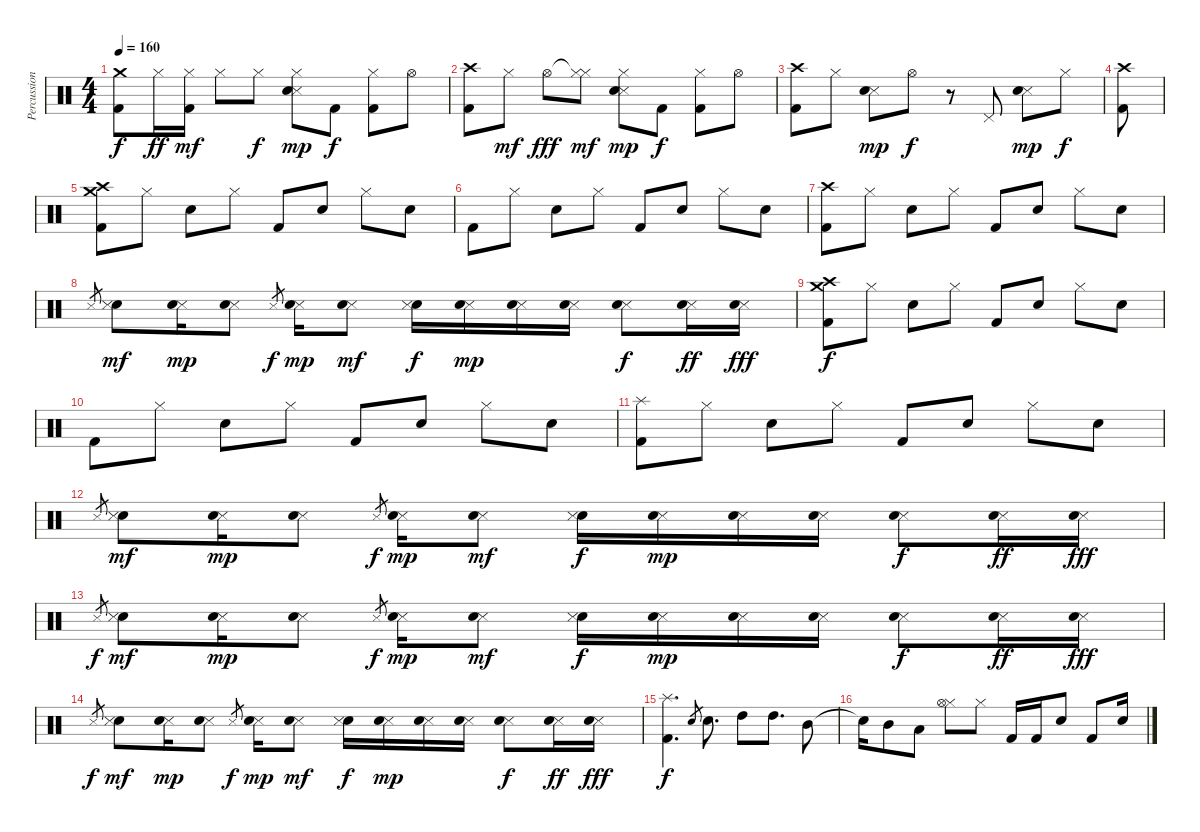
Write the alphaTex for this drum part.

\track ("Percussion" "Percussion") {instrument percussion}
\staff {score}
\articulation defaults
\ts (4 4)
\tempo 160
\clef neutral
\ks c
("Crash medium (hit)" "Kick (hit) 2").8{dy f} "Hi-Hat (closed)".16{dy ff} ("Hi-Hat (closed)" "Kick (hit) 2").16{dy mf} "Hi-Hat (closed)".8 "Hi-Hat (closed)".8{dy f} ("Hi-Hat (closed)" "Snare (side stick) 3" "Electric Snare (hit)").8{dy mp} "Kick (hit) 2".8{dy f} ("Hi-Hat (closed)" "Kick (hit) 2").8 "Hi-Hat (open)".8 |
("Crash high (hit)" "Kick (hit) 2").8 "Hi-Hat (closed)".8{dy mf} "Hi-Hat (open)".8{dy fff} ("Hi-Hat (closed)"{t} "Hi-Hat (closed)").8{dy mf} ("Hi-Hat (closed)" "Snare (side stick) 3" "Electric Snare (hit)").8{dy mp} "Kick (hit) 2".8{dy f} ("Hi-Hat (closed)" "Kick (hit) 2").8 "Hi-Hat (open)".8 |
("Crash high (hit)" "Kick (hit) 2").8 "Hi-Hat (closed)".8 ("Snare (side stick) 3" "Electric Snare (hit)").8{dy mp} "Hi-Hat (open)".8{dy f} r.8 "Pedal Hi-Hat (hit)".8 ("Snare (side stick) 3" "Electric Snare (hit)").8{dy mp} "Hi-Hat (closed)".8{dy f} |
("Crash high (hit)" "Kick (hit) 2").8 |
("Kick (hit) 2" "Crash high (hit)" "Crash medium (hit)").8 "Hi-Hat (closed)".8 "Electric Snare (hit)".8 "Hi-Hat (closed)".8 "Kick (hit) 2".8 "Electric Snare (hit)".8 "Hi-Hat (closed)".8 "Electric Snare (hit)".8 |
"Kick (hit) 2".8 "Hi-Hat (closed)".8 "Electric Snare (hit)".8 "Hi-Hat (closed)".8 "Kick (hit) 2".8 "Electric Snare (hit)".8 "Hi-Hat (closed)".8 "Electric Snare (hit)".8 |
("Kick (hit) 2" "Crash high (hit)").8 "Hi-Hat (closed)".8 "Electric Snare (hit)".8 "Hi-Hat (closed)".8 "Kick (hit) 2".8 "Electric Snare (hit)".8 "Hi-Hat (closed)".8 "Electric Snare (hit)".8 |
"Snare (side stick) 3".8{gr} ("Electric Snare (hit)" "Snare (side stick) 3").8{dy mf} ("Snare (side stick) 3" "Electric Snare (hit)").16{dy mp} ("Snare (side stick) 3" "Electric Snare (hit)").8 "Snare (side stick) 3".8{gr dy f} ("Snare (side stick) 3" "Electric Snare (hit)").16{dy mp} ("Snare (side stick) 3" "Electric Snare (hit)").8{dy mf} ("Electric Snare (hit)" "Snare (side stick) 3").16{dy f} ("Snare (side stick) 3" "Electric Snare (hit)").16{dy mp} ("Snare (side stick) 3" "Electric Snare (hit)").16 ("Snare (side stick) 3" "Electric Snare (hit)").16 ("Snare (side stick) 3" "Electric Snare (hit)").8{dy f} ("Snare (side stick) 3" "Electric Snare (hit)").16{dy ff} ("Snare (side stick) 3" "Electric Snare (hit)").16{dy fff} |
("Kick (hit) 2" "Crash high (hit)" "Crash medium (hit)").8{dy f} "Hi-Hat (closed)".8 "Electric Snare (hit)".8 "Hi-Hat (closed)".8 "Kick (hit) 2".8 "Electric Snare (hit)".8 "Hi-Hat (closed)".8 "Electric Snare (hit)".8 |
"Kick (hit) 2".8 "Hi-Hat (closed)".8 "Electric Snare (hit)".8 "Hi-Hat (closed)".8 "Kick (hit) 2".8 "Electric Snare (hit)".8 "Hi-Hat (closed)".8 "Electric Snare (hit)".8 |
("Kick (hit) 2" "Splash (hit)").8 "Hi-Hat (closed)".8 "Electric Snare (hit)".8 "Hi-Hat (closed)".8 "Kick (hit) 2".8 "Electric Snare (hit)".8 "Hi-Hat (closed)".8 "Electric Snare (hit)".8 |
"Snare (side stick) 3".8{gr} ("Electric Snare (hit)" "Snare (side stick) 3").8{dy mf} ("Snare (side stick) 3" "Electric Snare (hit)").16{dy mp} ("Snare (side stick) 3" "Electric Snare (hit)").8 "Snare (side stick) 3".8{gr dy f} ("Snare (side stick) 3" "Electric Snare (hit)").16{dy mp} ("Snare (side stick) 3" "Electric Snare (hit)").8{dy mf} ("Electric Snare (hit)" "Snare (side stick) 3").16{dy f} ("Snare (side stick) 3" "Electric Snare (hit)").16{dy mp} ("Snare (side stick) 3" "Electric Snare (hit)").16 ("Snare (side stick) 3" "Electric Snare (hit)").16 ("Snare (side stick) 3" "Electric Snare (hit)").8{dy f} ("Snare (side stick) 3" "Electric Snare (hit)").16{dy ff} ("Snare (side stick) 3" "Electric Snare (hit)").16{dy fff} |
"Snare (side stick) 3".8{gr dy f} ("Electric Snare (hit)" "Snare (side stick) 3").8{dy mf} ("Snare (side stick) 3" "Electric Snare (hit)").16{dy mp} ("Snare (side stick) 3" "Electric Snare (hit)").8 "Snare (side stick) 3".8{gr dy f} ("Snare (side stick) 3" "Electric Snare (hit)").16{dy mp} ("Snare (side stick) 3" "Electric Snare (hit)").8{dy mf} ("Electric Snare (hit)" "Snare (side stick) 3").16{dy f} ("Snare (side stick) 3" "Electric Snare (hit)").16{dy mp} ("Snare (side stick) 3" "Electric Snare (hit)").16 ("Snare (side stick) 3" "Electric Snare (hit)").16 ("Snare (side stick) 3" "Electric Snare (hit)").8{dy f} ("Snare (side stick) 3" "Electric Snare (hit)").16{dy ff} ("Snare (side stick) 3" "Electric Snare (hit)").16{dy fff} |
"Snare (side stick) 3".8{gr dy f} ("Electric Snare (hit)" "Snare (side stick) 3").8{dy mf} ("Snare (side stick) 3" "Electric Snare (hit)").16{dy mp} ("Snare (side stick) 3" "Electric Snare (hit)").8 "Snare (side stick) 3".8{gr dy f} ("Snare (side stick) 3" "Electric Snare (hit)").16{dy mp} ("Snare (side stick) 3" "Electric Snare (hit)").8{dy mf} ("Electric Snare (hit)" "Snare (side stick) 3").16{dy f} ("Snare (side stick) 3" "Electric Snare (hit)").16{dy mp} ("Snare (side stick) 3" "Electric Snare (hit)").16 ("Snare (side stick) 3" "Electric Snare (hit)").16 ("Snare (side stick) 3" "Electric Snare (hit)").8{dy f} ("Snare (side stick) 3" "Electric Snare (hit)").16{dy ff} ("Snare (side stick) 3" "Electric Snare (hit)").16{dy fff} |
("Splash (hit)" "Kick (hit) 2").4{d dy f} "Electric Snare (hit)".8{gr} "Electric Snare (hit)".8{d} "High Tom (hit)".8 "High Tom (hit)".8{d} "Mid Tom (hit)".8 |
"Snare (hit)"{t}.16 "Mid Tom (hit)".8 "Low Tom (hit)".8 ("Hi-Hat (closed)" "Hi-Hat (open)").8 "Hi-Hat (closed)".8 "Kick (hit) 2".16 "Kick (hit) 2".16 "Electric Snare (hit)".8 "Kick (hit) 2".8 "Electric Snare (hit)".16
